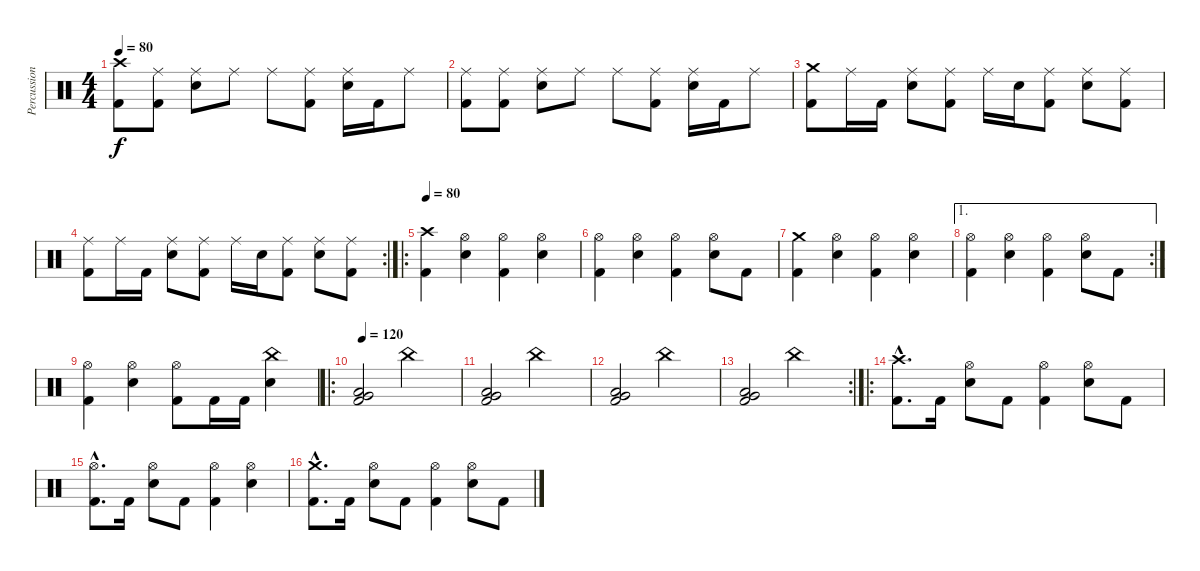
\track ("Percussions" "Percussion") {instrument percussion}
\staff {score}
\articulation defaults
\ts (4 4)
\tempo 80
\clef neutral
\ks c
("Crash high (hit)" "Kick (hit) 2").8{dy f} ("Ride (middle)" "Kick (hit) 2").8 ("Ride (middle)" "Electric Snare (hit)").8 "Ride (middle)".8 "Ride (middle)".8 ("Ride (middle)" "Kick (hit) 2").8 ("Ride (middle)" "Electric Snare (hit)").16 "Kick (hit) 2".16 "Ride (middle)".8 |
("Ride (middle)" "Kick (hit) 2").8 ("Ride (middle)" "Kick (hit) 2").8 ("Ride (middle)" "Electric Snare (hit)").8 "Ride (middle)".8 "Ride (middle)".8 ("Ride (middle)" "Kick (hit) 2").8 ("Ride (middle)" "Electric Snare (hit)").16 "Kick (hit) 2".16 "Ride (middle)".8 |
("Crash medium (hit)" "Kick (hit) 2").8 "Ride (middle)".16 "Kick (hit) 2".16 ("Ride (middle)" "Electric Snare (hit)").8 ("Ride (middle)" "Kick (hit) 2").8 "Ride (middle)".16 "Electric Snare (hit)".16 ("Ride (middle)" "Kick (hit) 2").8 ("Ride (middle)" "Electric Snare (hit)").8 ("Ride (middle)" "Kick (hit) 2").8 |
\rc 2
("Ride (middle)" "Kick (hit) 2").8 "Ride (middle)".16 "Kick (hit) 2".16 ("Ride (middle)" "Electric Snare (hit)").8 ("Ride (middle)" "Kick (hit) 2").8 "Ride (middle)".16 "Electric Snare (hit)".16 ("Ride (middle)" "Kick (hit) 2").8 ("Ride (middle)" "Electric Snare (hit)").8 ("Ride (middle)" "Kick (hit) 2").8 |
\ro
\tempo 80
("Crash high (hit)" "Kick (hit) 2").4 ("Hi-Hat (open)" "Electric Snare (hit)").4 ("Hi-Hat (open)" "Kick (hit) 2").4 ("Hi-Hat (open)" "Electric Snare (hit)").4 |
("Hi-Hat (open)" "Kick (hit) 2").4 ("Hi-Hat (open)" "Electric Snare (hit)").4 ("Hi-Hat (open)" "Kick (hit) 2").4 ("Hi-Hat (open)" "Electric Snare (hit)").8 "Kick (hit) 2".8 |
("Crash medium (hit)" "Kick (hit) 2").4 ("Hi-Hat (open)" "Electric Snare (hit)").4 ("Hi-Hat (open)" "Kick (hit) 2").4 ("Hi-Hat (open)" "Electric Snare (hit)").4 |
\ae 1
\rc 2
("Hi-Hat (open)" "Kick (hit) 2").4 ("Hi-Hat (open)" "Electric Snare (hit)").4 ("Hi-Hat (open)" "Kick (hit) 2").4 ("Hi-Hat (open)" "Electric Snare (hit)").8 "Kick (hit) 2".8 |
("Hi-Hat (open)" "Kick (hit) 2").4 ("Hi-Hat (open)" "Electric Snare (hit)").4 ("Hi-Hat (open)" "Kick (hit) 2").8 "Kick (hit) 2".16 "Kick (hit) 2".16 ("China (hit)" "Electric Snare (hit)").4 |
\ro
\tempo 120
("Very Low Tom (hit)" "Low Floor Tom (hit)" "Kick (hit) 2").2 "China (hit)".2 |
("Very Low Tom (hit)" "Low Floor Tom (hit)" "Kick (hit) 2").2 "China (hit)".2 |
("Very Low Tom (hit)" "Low Floor Tom (hit)" "Kick (hit) 2").2 "China (hit)".2 |
\rc 2
("Very Low Tom (hit)" "Low Floor Tom (hit)" "Kick (hit) 2").2 "China (hit)".2 |
\ro
("Crash high (hit)"{hac} "Kick (hit) 2"{hac}).8{d} "Kick (hit) 2".16 ("Hi-Hat (open)" "Electric Snare (hit)").8 "Kick (hit) 2".8 ("Hi-Hat (open)" "Kick (hit) 2").4 ("Hi-Hat (open)" "Electric Snare (hit)").8 "Kick (hit) 2".8 |
("Hi-Hat (open)"{hac} "Kick (hit) 2"{hac}).8{d} "Kick (hit) 2".16 ("Hi-Hat (open)" "Electric Snare (hit)").8 "Kick (hit) 2".8 ("Hi-Hat (open)" "Kick (hit) 2").4 ("Hi-Hat (open)" "Electric Snare (hit)").4 |
("Crash medium (hit)"{hac} "Kick (hit) 2"{hac}).8{d} "Kick (hit) 2".16 ("Hi-Hat (open)" "Electric Snare (hit)").8 "Kick (hit) 2".8 ("Hi-Hat (open)" "Kick (hit) 2").4 ("Hi-Hat (open)" "Electric Snare (hit)").8 "Kick (hit) 2".8
